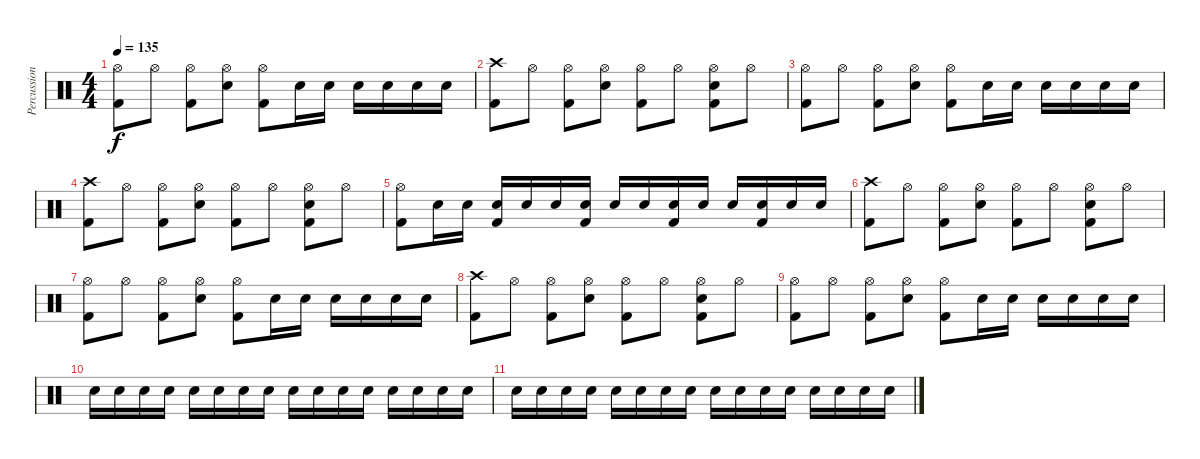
\track ("Percussion" "Percussion") {instrument percussion}
\staff {score}
\articulation defaults
\ts (4 4)
\tempo 135
\clef neutral
\ks c
("Hi-Hat (open)" "Kick (hit) 2").8{dy f} "Hi-Hat (open)".8 ("Hi-Hat (open)" "Kick (hit) 2").8 ("Electric Snare (hit)" "Hi-Hat (open)").8 ("Hi-Hat (open)" "Kick (hit) 2").8 "Electric Snare (hit)".16 "Electric Snare (hit)".16 "Electric Snare (hit)".16 "Electric Snare (hit)".16 "Electric Snare (hit)".16 "Electric Snare (hit)".16 |
("Crash high (hit)" "Kick (hit) 2").8 "Hi-Hat (open)".8 ("Hi-Hat (open)" "Kick (hit) 2").8 ("Electric Snare (hit)" "Hi-Hat (open)").8 ("Hi-Hat (open)" "Kick (hit) 2").8 "Hi-Hat (open)".8 ("Electric Snare (hit)" "Hi-Hat (open)" "Kick (hit) 2").8 "Hi-Hat (open)".8 |
("Hi-Hat (open)" "Kick (hit) 2").8 "Hi-Hat (open)".8 ("Hi-Hat (open)" "Kick (hit) 2").8 ("Electric Snare (hit)" "Hi-Hat (open)").8 ("Hi-Hat (open)" "Kick (hit) 2").8 "Electric Snare (hit)".16 "Electric Snare (hit)".16 "Electric Snare (hit)".16 "Electric Snare (hit)".16 "Electric Snare (hit)".16 "Electric Snare (hit)".16 |
("Crash high (hit)" "Kick (hit) 2").8 "Hi-Hat (open)".8 ("Hi-Hat (open)" "Kick (hit) 2").8 ("Electric Snare (hit)" "Hi-Hat (open)").8 ("Hi-Hat (open)" "Kick (hit) 2").8 "Hi-Hat (open)".8 ("Electric Snare (hit)" "Hi-Hat (open)" "Kick (hit) 2").8 "Hi-Hat (open)".8 |
("Hi-Hat (open)" "Kick (hit) 2").8 "Electric Snare (hit)".16 "Electric Snare (hit)".16 ("Electric Snare (hit)" "Kick (hit) 2").16 "Electric Snare (hit)".16 "Electric Snare (hit)".16 ("Electric Snare (hit)" "Kick (hit) 2").16 "Electric Snare (hit)".16 "Electric Snare (hit)".16 ("Electric Snare (hit)" "Kick (hit) 2").16 "Electric Snare (hit)".16 "Electric Snare (hit)".16 ("Electric Snare (hit)" "Kick (hit) 2").16 "Electric Snare (hit)".16 "Electric Snare (hit)".16 |
("Crash high (hit)" "Kick (hit) 2").8 "Hi-Hat (open)".8 ("Hi-Hat (open)" "Kick (hit) 2").8 ("Electric Snare (hit)" "Hi-Hat (open)").8 ("Hi-Hat (open)" "Kick (hit) 2").8 "Hi-Hat (open)".8 ("Electric Snare (hit)" "Hi-Hat (open)" "Kick (hit) 2").8 "Hi-Hat (open)".8 |
("Hi-Hat (open)" "Kick (hit) 2").8 "Hi-Hat (open)".8 ("Hi-Hat (open)" "Kick (hit) 2").8 ("Electric Snare (hit)" "Hi-Hat (open)").8 ("Hi-Hat (open)" "Kick (hit) 2").8 "Electric Snare (hit)".16 "Electric Snare (hit)".16 "Electric Snare (hit)".16 "Electric Snare (hit)".16 "Electric Snare (hit)".16 "Electric Snare (hit)".16 |
("Crash high (hit)" "Kick (hit) 2").8 "Hi-Hat (open)".8 ("Hi-Hat (open)" "Kick (hit) 2").8 ("Electric Snare (hit)" "Hi-Hat (open)").8 ("Hi-Hat (open)" "Kick (hit) 2").8 "Hi-Hat (open)".8 ("Electric Snare (hit)" "Hi-Hat (open)" "Kick (hit) 2").8 "Hi-Hat (open)".8 |
("Hi-Hat (open)" "Kick (hit) 2").8 "Hi-Hat (open)".8 ("Hi-Hat (open)" "Kick (hit) 2").8 ("Electric Snare (hit)" "Hi-Hat (open)").8 ("Hi-Hat (open)" "Kick (hit) 2").8 "Electric Snare (hit)".16 "Electric Snare (hit)".16 "Electric Snare (hit)".16 "Electric Snare (hit)".16 "Electric Snare (hit)".16 "Electric Snare (hit)".16 |
"Electric Snare (hit)".16 "Electric Snare (hit)".16 "Electric Snare (hit)".16 "Electric Snare (hit)".16 "Electric Snare (hit)".16 "Electric Snare (hit)".16 "Electric Snare (hit)".16 "Electric Snare (hit)".16 "Electric Snare (hit)".16 "Electric Snare (hit)".16 "Electric Snare (hit)".16 "Electric Snare (hit)".16 "Electric Snare (hit)".16 "Electric Snare (hit)".16 "Electric Snare (hit)".16 "Electric Snare (hit)".16 |
"Electric Snare (hit)".16 "Electric Snare (hit)".16 "Electric Snare (hit)".16 "Electric Snare (hit)".16 "Electric Snare (hit)".16 "Electric Snare (hit)".16 "Electric Snare (hit)".16 "Electric Snare (hit)".16 "Electric Snare (hit)".16 "Electric Snare (hit)".16 "Electric Snare (hit)".16 "Electric Snare (hit)".16 "Electric Snare (hit)".16 "Electric Snare (hit)".16 "Electric Snare (hit)".16 "Electric Snare (hit)".16
